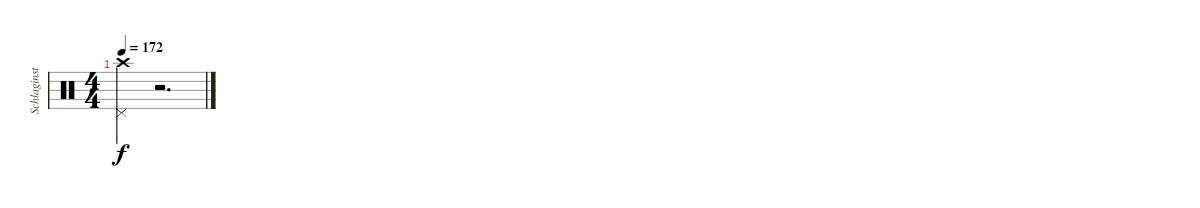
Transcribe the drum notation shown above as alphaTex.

\track ("Schlaginstrumente - Auswahl" "Schlaginst") {instrument percussion}
\staff {score}
\articulation defaults
\ts (4 4)
\tempo 172
\clef neutral
\ks c
("Pedal Hi-Hat (hit)" "Crash high (hit)").4{dy f} r.2{d}
